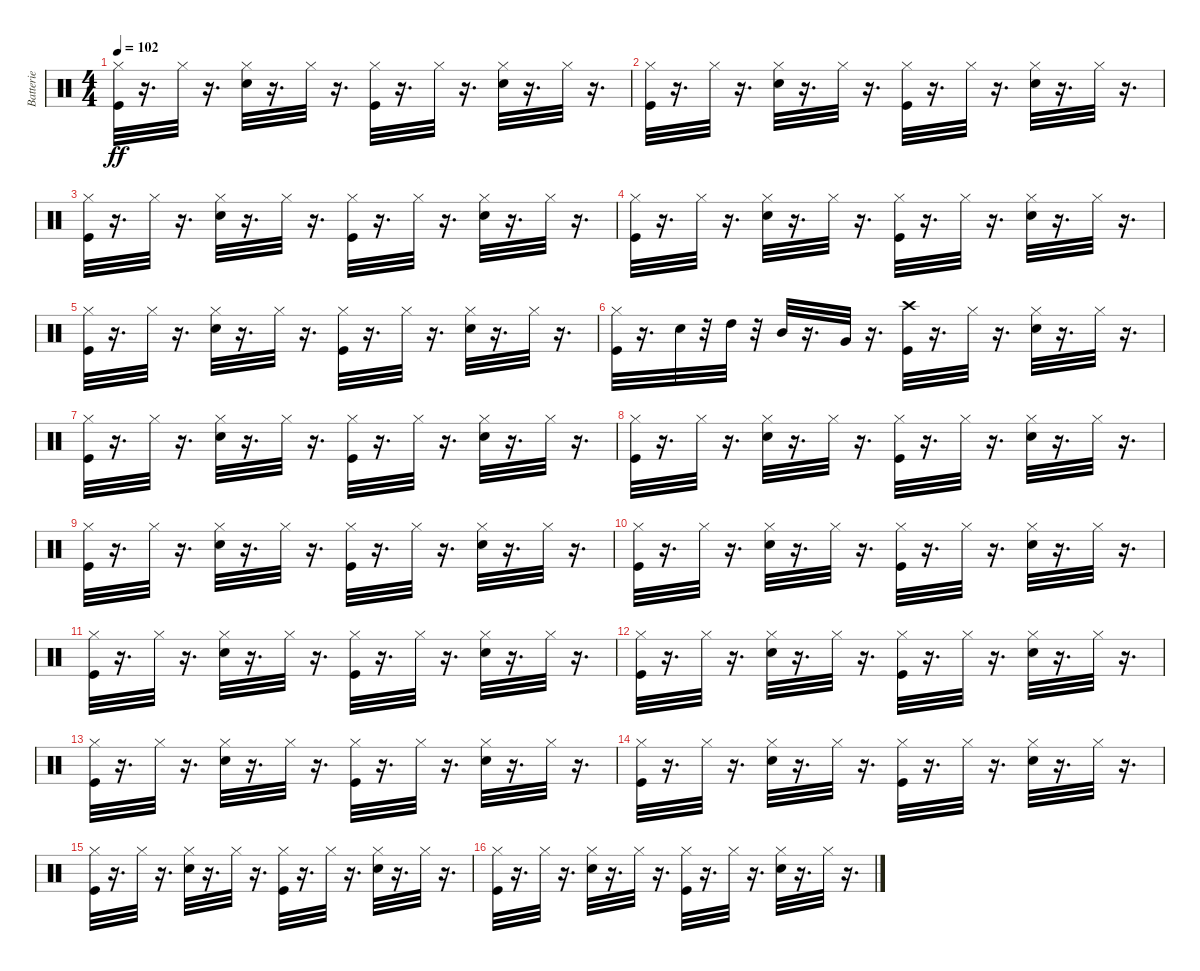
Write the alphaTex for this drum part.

\track ("Batterie" "Batterie") {instrument percussion}
\staff {score}
\articulation defaults
\ts (4 4)
\tempo 102
\clef neutral
\ks c
("Kick (hit)" "Hi-Hat (closed)").32{dy ff} r.16{d} "Hi-Hat (closed)".32 r.16{d} ("Hi-Hat (closed)" "Electric Snare (hit)").32 r.16{d} "Hi-Hat (closed)".32 r.16{d} ("Kick (hit)" "Hi-Hat (closed)").32 r.16{d} "Hi-Hat (closed)".32 r.16{d} ("Hi-Hat (closed)" "Electric Snare (hit)").32 r.16{d} "Hi-Hat (closed)".32 r.16{d} |
("Kick (hit)" "Hi-Hat (closed)").32 r.16{d} "Hi-Hat (closed)".32 r.16{d} ("Hi-Hat (closed)" "Electric Snare (hit)").32 r.16{d} "Hi-Hat (closed)".32 r.16{d} ("Kick (hit)" "Hi-Hat (closed)").32 r.16{d} "Hi-Hat (closed)".32 r.16{d} ("Hi-Hat (closed)" "Electric Snare (hit)").32 r.16{d} "Hi-Hat (closed)".32 r.16{d} |
("Kick (hit)" "Hi-Hat (closed)").32 r.16{d} "Hi-Hat (closed)".32 r.16{d} ("Hi-Hat (closed)" "Electric Snare (hit)").32 r.16{d} "Hi-Hat (closed)".32 r.16{d} ("Kick (hit)" "Hi-Hat (closed)").32 r.16{d} "Hi-Hat (closed)".32 r.16{d} ("Hi-Hat (closed)" "Electric Snare (hit)").32 r.16{d} "Hi-Hat (closed)".32 r.16{d} |
("Kick (hit)" "Hi-Hat (closed)").32 r.16{d} "Hi-Hat (closed)".32 r.16{d} ("Hi-Hat (closed)" "Electric Snare (hit)").32 r.16{d} "Hi-Hat (closed)".32 r.16{d} ("Kick (hit)" "Hi-Hat (closed)").32 r.16{d} "Hi-Hat (closed)".32 r.16{d} ("Hi-Hat (closed)" "Electric Snare (hit)").32 r.16{d} "Hi-Hat (closed)".32 r.16{d} |
("Kick (hit)" "Hi-Hat (closed)").32 r.16{d} "Hi-Hat (closed)".32 r.16{d} ("Hi-Hat (closed)" "Electric Snare (hit)").32 r.16{d} "Hi-Hat (closed)".32 r.16{d} ("Kick (hit)" "Hi-Hat (closed)").32 r.16{d} "Hi-Hat (closed)".32 r.16{d} ("Hi-Hat (closed)" "Electric Snare (hit)").32 r.16{d} "Hi-Hat (closed)".32 r.16{d} |
("Kick (hit)" "Hi-Hat (closed)").32 r.16{d} "Electric Snare (hit)".32 r.32 "High Tom (hit)".32 r.32 "Mid Tom (hit)".32 r.16{d} "Very Low Tom (hit)".32 r.16{d} ("Kick (hit)" "Crash high (hit)").32 r.16{d} "Hi-Hat (closed)".32 r.16{d} ("Hi-Hat (closed)" "Electric Snare (hit)").32 r.16{d} "Hi-Hat (closed)".32 r.16{d} |
("Kick (hit)" "Hi-Hat (closed)").32 r.16{d} "Hi-Hat (closed)".32 r.16{d} ("Hi-Hat (closed)" "Electric Snare (hit)").32 r.16{d} "Hi-Hat (closed)".32 r.16{d} ("Kick (hit)" "Hi-Hat (closed)").32 r.16{d} "Hi-Hat (closed)".32 r.16{d} ("Hi-Hat (closed)" "Electric Snare (hit)").32 r.16{d} "Hi-Hat (closed)".32 r.16{d} |
("Kick (hit)" "Hi-Hat (closed)").32 r.16{d} "Hi-Hat (closed)".32 r.16{d} ("Hi-Hat (closed)" "Electric Snare (hit)").32 r.16{d} "Hi-Hat (closed)".32 r.16{d} ("Kick (hit)" "Hi-Hat (closed)").32 r.16{d} "Hi-Hat (closed)".32 r.16{d} ("Hi-Hat (closed)" "Electric Snare (hit)").32 r.16{d} "Hi-Hat (closed)".32 r.16{d} |
("Kick (hit)" "Hi-Hat (closed)").32 r.16{d} "Hi-Hat (closed)".32 r.16{d} ("Hi-Hat (closed)" "Electric Snare (hit)").32 r.16{d} "Hi-Hat (closed)".32 r.16{d} ("Kick (hit)" "Hi-Hat (closed)").32 r.16{d} "Hi-Hat (closed)".32 r.16{d} ("Hi-Hat (closed)" "Electric Snare (hit)").32 r.16{d} "Hi-Hat (closed)".32 r.16{d} |
("Kick (hit)" "Hi-Hat (closed)").32 r.16{d} "Hi-Hat (closed)".32 r.16{d} ("Hi-Hat (closed)" "Electric Snare (hit)").32 r.16{d} "Hi-Hat (closed)".32 r.16{d} ("Kick (hit)" "Hi-Hat (closed)").32 r.16{d} "Hi-Hat (closed)".32 r.16{d} ("Hi-Hat (closed)" "Electric Snare (hit)").32 r.16{d} "Hi-Hat (closed)".32 r.16{d} |
("Kick (hit)" "Hi-Hat (closed)").32 r.16{d} "Hi-Hat (closed)".32 r.16{d} ("Hi-Hat (closed)" "Electric Snare (hit)").32 r.16{d} "Hi-Hat (closed)".32 r.16{d} ("Kick (hit)" "Hi-Hat (closed)").32 r.16{d} "Hi-Hat (closed)".32 r.16{d} ("Hi-Hat (closed)" "Electric Snare (hit)").32 r.16{d} "Hi-Hat (closed)".32 r.16{d} |
("Kick (hit)" "Hi-Hat (closed)").32 r.16{d} "Hi-Hat (closed)".32 r.16{d} ("Hi-Hat (closed)" "Electric Snare (hit)").32 r.16{d} "Hi-Hat (closed)".32 r.16{d} ("Kick (hit)" "Hi-Hat (closed)").32 r.16{d} "Hi-Hat (closed)".32 r.16{d} ("Hi-Hat (closed)" "Electric Snare (hit)").32 r.16{d} "Hi-Hat (closed)".32 r.16{d} |
("Kick (hit)" "Hi-Hat (closed)").32 r.16{d} "Hi-Hat (closed)".32 r.16{d} ("Hi-Hat (closed)" "Electric Snare (hit)").32 r.16{d} "Hi-Hat (closed)".32 r.16{d} ("Kick (hit)" "Hi-Hat (closed)").32 r.16{d} "Hi-Hat (closed)".32 r.16{d} ("Hi-Hat (closed)" "Electric Snare (hit)").32 r.16{d} "Hi-Hat (closed)".32 r.16{d} |
("Kick (hit)" "Hi-Hat (closed)").32 r.16{d} "Hi-Hat (closed)".32 r.16{d} ("Hi-Hat (closed)" "Electric Snare (hit)").32 r.16{d} "Hi-Hat (closed)".32 r.16{d} ("Kick (hit)" "Hi-Hat (closed)").32 r.16{d} "Hi-Hat (closed)".32 r.16{d} ("Hi-Hat (closed)" "Electric Snare (hit)").32 r.16{d} "Hi-Hat (closed)".32 r.16{d} |
("Kick (hit)" "Hi-Hat (closed)").32 r.16{d} "Hi-Hat (closed)".32 r.16{d} ("Hi-Hat (closed)" "Electric Snare (hit)").32 r.16{d} "Hi-Hat (closed)".32 r.16{d} ("Kick (hit)" "Hi-Hat (closed)").32 r.16{d} "Hi-Hat (closed)".32 r.16{d} ("Hi-Hat (closed)" "Electric Snare (hit)").32 r.16{d} "Hi-Hat (closed)".32 r.16{d} |
("Kick (hit)" "Hi-Hat (closed)").32 r.16{d} "Hi-Hat (closed)".32 r.16{d} ("Hi-Hat (closed)" "Electric Snare (hit)").32 r.16{d} "Hi-Hat (closed)".32 r.16{d} ("Kick (hit)" "Hi-Hat (closed)").32 r.16{d} "Hi-Hat (closed)".32 r.16{d} ("Hi-Hat (closed)" "Electric Snare (hit)").32 r.16{d} "Hi-Hat (closed)".32 r.16{d}
